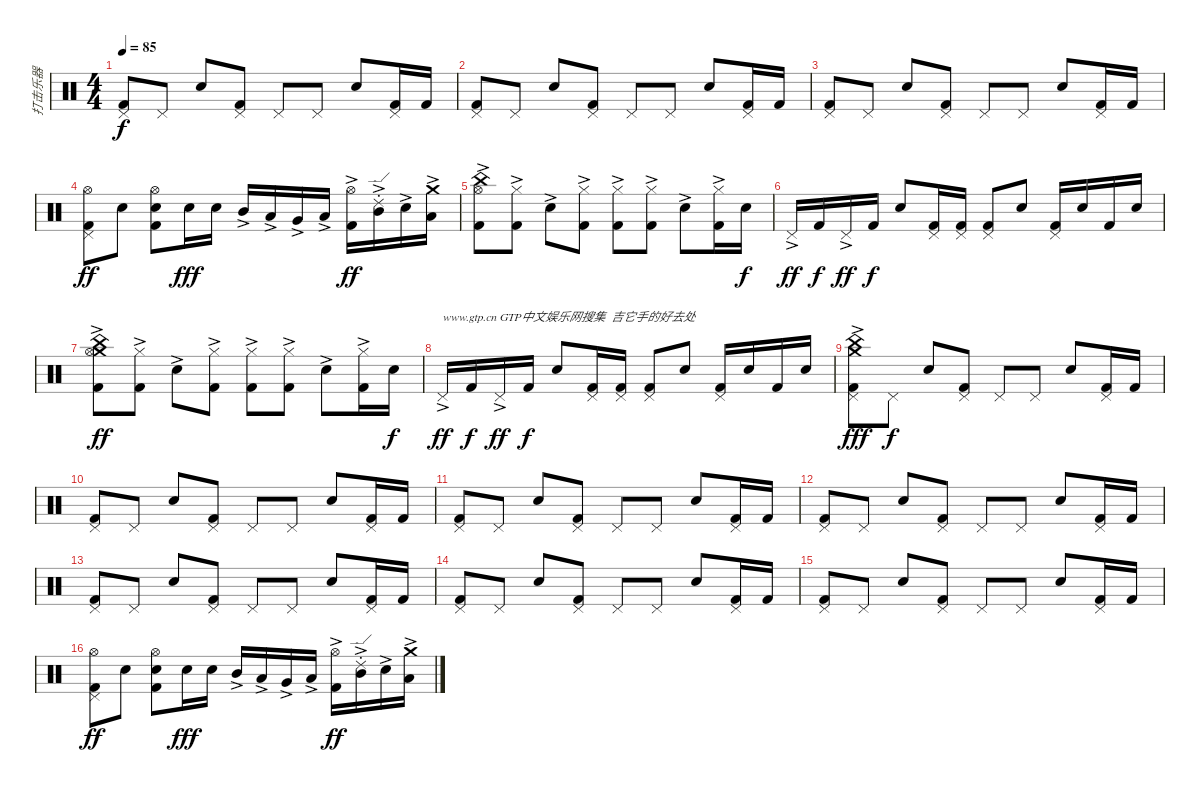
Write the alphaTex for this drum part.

\track ("打击乐器" "打击乐器") {instrument percussion}
\staff {score}
\articulation defaults
\ts (4 4)
\tempo 85
\clef neutral
\ks c
("Pedal Hi-Hat (hit)" "Kick (hit) 2").8{dy f} "Pedal Hi-Hat (hit)".8 "Electric Snare (hit)".8 ("Pedal Hi-Hat (hit)" "Kick (hit) 2").8 "Pedal Hi-Hat (hit)".8 "Pedal Hi-Hat (hit)".8 "Electric Snare (hit)".8 ("Pedal Hi-Hat (hit)" "Kick (hit) 2").16 "Kick (hit) 2".16 |
("Pedal Hi-Hat (hit)" "Kick (hit) 2").8 "Pedal Hi-Hat (hit)".8 "Electric Snare (hit)".8 ("Pedal Hi-Hat (hit)" "Kick (hit) 2").8 "Pedal Hi-Hat (hit)".8 "Pedal Hi-Hat (hit)".8 "Electric Snare (hit)".8 ("Pedal Hi-Hat (hit)" "Kick (hit) 2").16 "Kick (hit) 2".16 |
("Pedal Hi-Hat (hit)" "Kick (hit) 2").8 "Pedal Hi-Hat (hit)".8 "Electric Snare (hit)".8 ("Pedal Hi-Hat (hit)" "Kick (hit) 2").8 "Pedal Hi-Hat (hit)".8 "Pedal Hi-Hat (hit)".8 "Electric Snare (hit)".8 ("Pedal Hi-Hat (hit)" "Kick (hit) 2").16 "Kick (hit) 2".16 |
("Hi-Hat (open)" "Pedal Hi-Hat (hit)" "Kick (hit) 2").8{dy ff} "Electric Snare (hit)".8 ("Hi-Hat (open)" "Electric Snare (hit)" "Kick (hit) 2").8 "Electric Snare (hit)".16{dy fff} "Electric Snare (hit)".16 "Mid Tom (hit)"{ac}.16 "Low Tom (hit)"{ac}.16 "Very Low Tom (hit)"{ac}.16 "Low Floor Tom (hit)"{ac}.16 ("Hi-Hat (open)"{ac} "Kick (hit) 2"{ac}).16{dy ff} ("Ride (edge) 2"{ac st} "Mid Tom (hit)"{ac}).16 "Electric Snare (hit)"{ac}.16 ("Crash medium (hit)"{ac} "Low Tom (hit)"{ac}).16 |
("China (hit)" "Hi-Hat (open)" "Kick (hit) 2"{ac}).8{volume 16} ("Hi-Hat (closed)" "Kick (hit) 2"{ac}).8 "Electric Snare (hit)"{ac}.8 ("Hi-Hat (closed)" "Kick (hit) 2"{ac}).8 ("Hi-Hat (closed)" "Kick (hit) 2"{ac}).8 ("Hi-Hat (closed)" "Kick (hit) 2"{ac}).8 "Electric Snare (hit)"{ac}.8 ("Hi-Hat (closed)" "Kick (hit) 2"{ac}).16 "Electric Snare (hit)".16{dy f} |
"Pedal Hi-Hat (hit)"{ac}.16{dy ff} "Kick (hit) 2".16{dy f} "Pedal Hi-Hat (hit)"{ac}.16{dy ff} "Kick (hit) 2".16{dy f} "Electric Snare (hit)".8 ("Pedal Hi-Hat (hit)" "Kick (hit) 2").16 ("Pedal Hi-Hat (hit)" "Kick (hit) 2").16 ("Pedal Hi-Hat (hit)" "Kick (hit) 2").8 "Electric Snare (hit)".8 ("Pedal Hi-Hat (hit)" "Kick (hit) 2").16 "Electric Snare (hit)".16 "Kick (hit) 2".16 "Electric Snare (hit)".16 |
("Crash medium (hit)" "China (hit)"{ac} "Hi-Hat (open)" "Kick (hit) 2"{ac}).8{dy ff} ("Hi-Hat (closed)" "Kick (hit) 2"{ac}).8 "Electric Snare (hit)"{ac}.8 ("Hi-Hat (closed)" "Kick (hit) 2"{ac}).8 ("Hi-Hat (closed)" "Kick (hit) 2"{ac}).8 ("Hi-Hat (closed)" "Kick (hit) 2"{ac}).8 "Electric Snare (hit)"{ac}.8 ("Hi-Hat (closed)" "Kick (hit) 2"{ac}).16 "Electric Snare (hit)".16{dy f} |
"Pedal Hi-Hat (hit)"{ac}.16{txt "www.gtp.cn GTP中文娱乐网搜集  吉它手的好去处" dy ff} "Kick (hit) 2".16{dy f} "Pedal Hi-Hat (hit)"{ac}.16{dy ff} "Kick (hit) 2".16{dy f} "Electric Snare (hit)".8 ("Pedal Hi-Hat (hit)" "Kick (hit) 2").16 ("Pedal Hi-Hat (hit)" "Kick (hit) 2").16 ("Pedal Hi-Hat (hit)" "Kick (hit) 2").8 "Electric Snare (hit)".8 ("Pedal Hi-Hat (hit)" "Kick (hit) 2").16 "Electric Snare (hit)".16 "Kick (hit) 2".16 "Electric Snare (hit)".16 |
("Crash medium (hit)"{ac} "China (hit)"{ac} "Pedal Hi-Hat (hit)" "Kick (hit) 2").8{dy fff} "Pedal Hi-Hat (hit)".8{dy f} "Electric Snare (hit)".8 ("Pedal Hi-Hat (hit)" "Kick (hit) 2").8 "Pedal Hi-Hat (hit)".8 "Pedal Hi-Hat (hit)".8 "Electric Snare (hit)".8 ("Pedal Hi-Hat (hit)" "Kick (hit) 2").16 "Kick (hit) 2".16 |
("Pedal Hi-Hat (hit)" "Kick (hit) 2").8 "Pedal Hi-Hat (hit)".8 "Electric Snare (hit)".8 ("Pedal Hi-Hat (hit)" "Kick (hit) 2").8 "Pedal Hi-Hat (hit)".8 "Pedal Hi-Hat (hit)".8 "Electric Snare (hit)".8 ("Pedal Hi-Hat (hit)" "Kick (hit) 2").16 "Kick (hit) 2".16 |
("Pedal Hi-Hat (hit)" "Kick (hit) 2").8 "Pedal Hi-Hat (hit)".8 "Electric Snare (hit)".8 ("Pedal Hi-Hat (hit)" "Kick (hit) 2").8 "Pedal Hi-Hat (hit)".8 "Pedal Hi-Hat (hit)".8 "Electric Snare (hit)".8 ("Pedal Hi-Hat (hit)" "Kick (hit) 2").16 "Kick (hit) 2".16 |
("Pedal Hi-Hat (hit)" "Kick (hit) 2").8 "Pedal Hi-Hat (hit)".8 "Electric Snare (hit)".8 ("Pedal Hi-Hat (hit)" "Kick (hit) 2").8 "Pedal Hi-Hat (hit)".8 "Pedal Hi-Hat (hit)".8 "Electric Snare (hit)".8 ("Pedal Hi-Hat (hit)" "Kick (hit) 2").16 "Kick (hit) 2".16 |
("Pedal Hi-Hat (hit)" "Kick (hit) 2").8 "Pedal Hi-Hat (hit)".8 "Electric Snare (hit)".8 ("Pedal Hi-Hat (hit)" "Kick (hit) 2").8 "Pedal Hi-Hat (hit)".8 "Pedal Hi-Hat (hit)".8 "Electric Snare (hit)".8 ("Pedal Hi-Hat (hit)" "Kick (hit) 2").16 "Kick (hit) 2".16 |
("Pedal Hi-Hat (hit)" "Kick (hit) 2").8 "Pedal Hi-Hat (hit)".8 "Electric Snare (hit)".8 ("Pedal Hi-Hat (hit)" "Kick (hit) 2").8 "Pedal Hi-Hat (hit)".8 "Pedal Hi-Hat (hit)".8 "Electric Snare (hit)".8 ("Pedal Hi-Hat (hit)" "Kick (hit) 2").16 "Kick (hit) 2".16 |
("Pedal Hi-Hat (hit)" "Kick (hit) 2").8 "Pedal Hi-Hat (hit)".8 "Electric Snare (hit)".8 ("Pedal Hi-Hat (hit)" "Kick (hit) 2").8 "Pedal Hi-Hat (hit)".8 "Pedal Hi-Hat (hit)".8 "Electric Snare (hit)".8 ("Pedal Hi-Hat (hit)" "Kick (hit) 2").16 "Kick (hit) 2".16 |
("Hi-Hat (open)" "Pedal Hi-Hat (hit)" "Kick (hit) 2").8{dy ff} "Electric Snare (hit)".8 ("Hi-Hat (open)" "Electric Snare (hit)" "Kick (hit) 2").8 "Electric Snare (hit)".16{dy fff} "Electric Snare (hit)".16 "Mid Tom (hit)"{ac}.16 "Low Tom (hit)"{ac}.16 "Very Low Tom (hit)"{ac}.16 "Low Floor Tom (hit)"{ac}.16 ("Hi-Hat (open)"{ac} "Kick (hit) 2"{ac}).16{dy ff} ("Ride (edge) 2"{ac st} "Mid Tom (hit)"{ac}).16 "Electric Snare (hit)"{ac}.16 ("Crash medium (hit)"{ac} "Low Tom (hit)"{ac}).16
